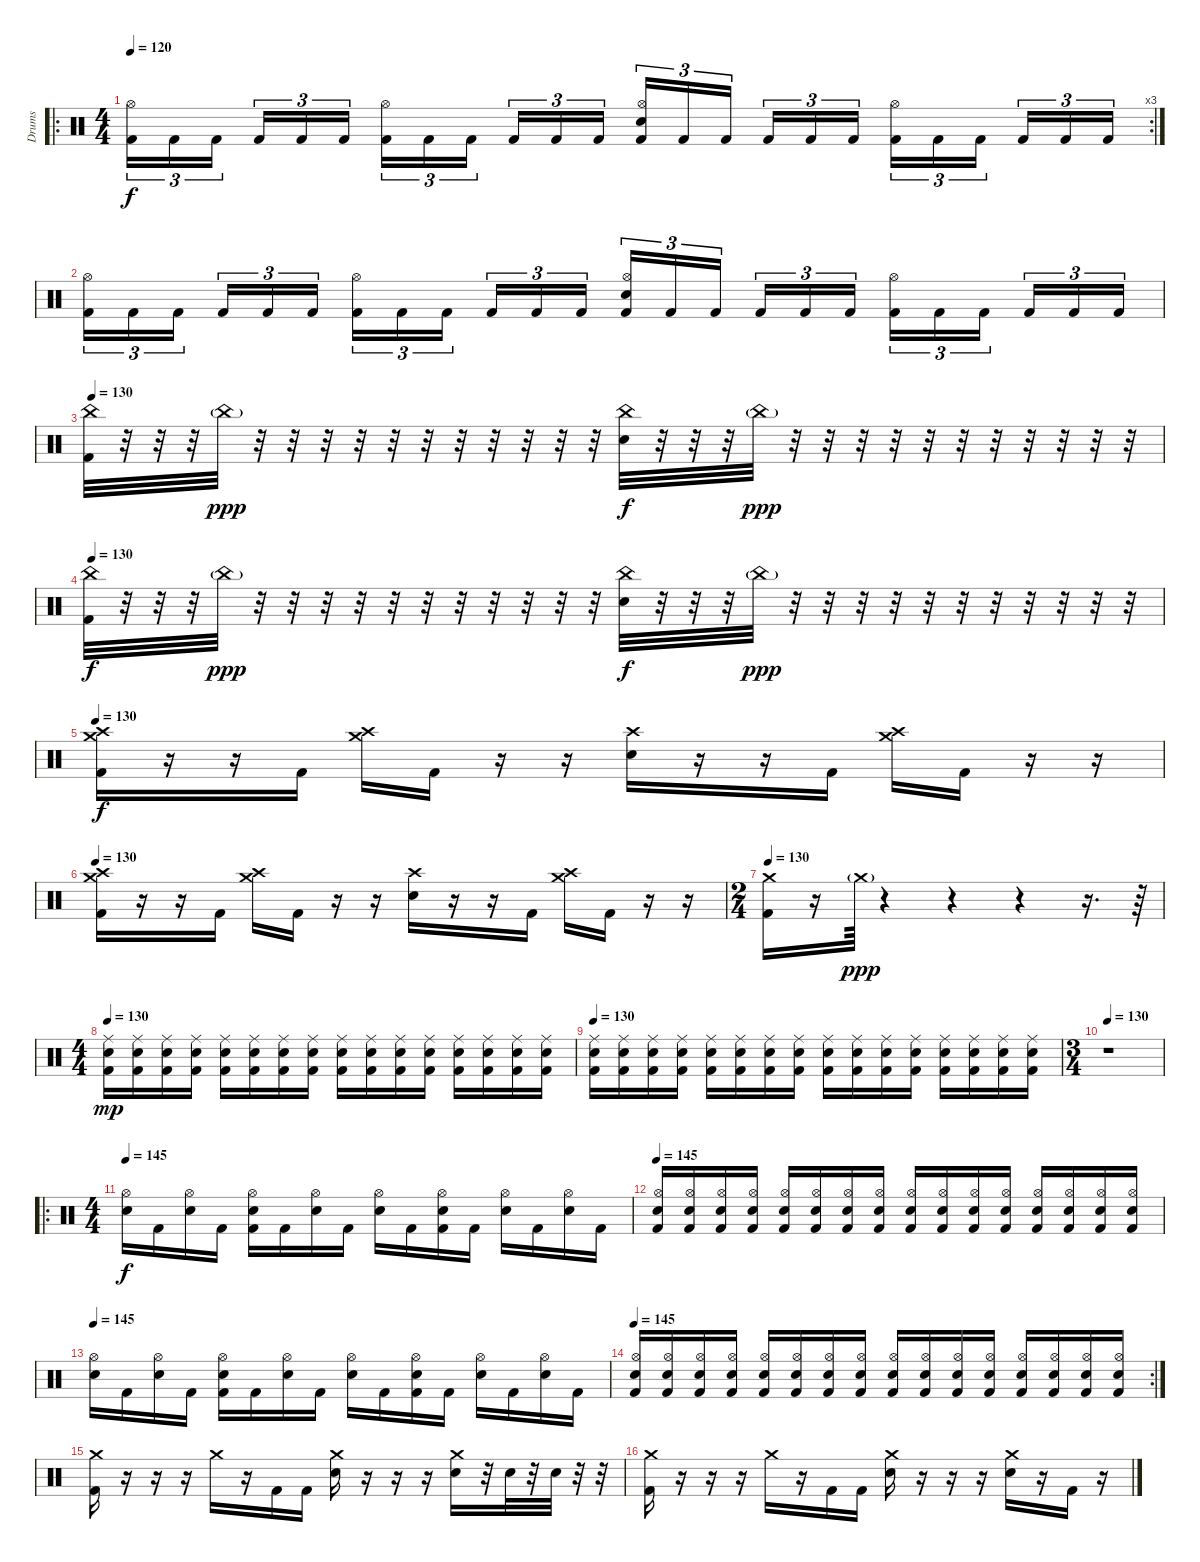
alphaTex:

\track ("Drums" "Drums") {instrument percussion}
\staff {score}
\articulation defaults
\ro
\rc 3
\ts (4 4)
\tempo 120
\clef neutral
\ks c
("Kick (hit) 2" "Hi-Hat (open)").16{tu (3 2) dy f} "Kick (hit) 2".16{tu (3 2)} "Kick (hit) 2".16{tu (3 2)} "Kick (hit) 2".16{tu (3 2)} "Kick (hit) 2".16{tu (3 2)} "Kick (hit) 2".16{tu (3 2)} ("Kick (hit) 2" "Hi-Hat (open)").16{tu (3 2)} "Kick (hit) 2".16{tu (3 2)} "Kick (hit) 2".16{tu (3 2)} "Kick (hit) 2".16{tu (3 2)} "Kick (hit) 2".16{tu (3 2)} "Kick (hit) 2".16{tu (3 2)} ("Kick (hit) 2" "Electric Snare (hit)" "Hi-Hat (open)").16{tu (3 2)} "Kick (hit) 2".16{tu (3 2)} "Kick (hit) 2".16{tu (3 2)} "Kick (hit) 2".16{tu (3 2)} "Kick (hit) 2".16{tu (3 2)} "Kick (hit) 2".16{tu (3 2)} ("Kick (hit) 2" "Hi-Hat (open)").16{tu (3 2)} "Kick (hit) 2".16{tu (3 2)} "Kick (hit) 2".16{tu (3 2)} "Kick (hit) 2".16{tu (3 2)} "Kick (hit) 2".16{tu (3 2)} "Kick (hit) 2".16{tu (3 2)} |
("Kick (hit) 2" "Hi-Hat (open)").16{tu (3 2)} "Kick (hit) 2".16{tu (3 2)} "Kick (hit) 2".16{tu (3 2)} "Kick (hit) 2".16{tu (3 2)} "Kick (hit) 2".16{tu (3 2)} "Kick (hit) 2".16{tu (3 2)} ("Kick (hit) 2" "Hi-Hat (open)").16{tu (3 2)} "Kick (hit) 2".16{tu (3 2)} "Kick (hit) 2".16{tu (3 2)} "Kick (hit) 2".16{tu (3 2)} "Kick (hit) 2".16{tu (3 2)} "Kick (hit) 2".16{tu (3 2)} ("Kick (hit) 2" "Electric Snare (hit)" "Hi-Hat (open)").16{tu (3 2)} "Kick (hit) 2".16{tu (3 2)} "Kick (hit) 2".16{tu (3 2)} "Kick (hit) 2".16{tu (3 2)} "Kick (hit) 2".16{tu (3 2)} "Kick (hit) 2".16{tu (3 2)} ("Kick (hit) 2" "Hi-Hat (open)").16{tu (3 2)} "Kick (hit) 2".16{tu (3 2)} "Kick (hit) 2".16{tu (3 2)} "Kick (hit) 2".16{tu (3 2)} "Kick (hit) 2".16{tu (3 2)} "Kick (hit) 2".16{tu (3 2)} |
\tempo 130
("Kick (hit) 2" "China (hit)").32 r.32 r.32 r.32 "China (hit)"{g}.32{dy ppp} r.32 r.32 r.32 r.32 r.32 r.32 r.32 r.32 r.32 r.32 r.32 ("Electric Snare (hit)" "China (hit)").32{dy f} r.32 r.32 r.32 "China (hit)"{g}.32{dy ppp} r.32 r.32 r.32 r.32 r.32 r.32 r.32 r.32 r.32 r.32 r.32 |
\tempo 130
("Kick (hit) 2" "China (hit)").32{dy f} r.32 r.32 r.32 "China (hit)"{g}.32{dy ppp} r.32 r.32 r.32 r.32 r.32 r.32 r.32 r.32 r.32 r.32 r.32 ("Electric Snare (hit)" "China (hit)").32{dy f} r.32 r.32 r.32 "China (hit)"{g}.32{dy ppp} r.32 r.32 r.32 r.32 r.32 r.32 r.32 r.32 r.32 r.32 r.32 |
\tempo 130
("Crash high (hit)" "Kick (hit) 2" "Crash medium (hit)").16{dy f} r.16 r.16 "Kick (hit) 2".16 ("Crash medium (hit)" "Crash high (hit)").16 "Kick (hit) 2".16 r.16 r.16 ("Electric Snare (hit)" "Crash high (hit)").16 r.16 r.16 "Kick (hit) 2".16 ("Crash medium (hit)" "Crash high (hit)").16 "Kick (hit) 2".16 r.16 r.16 |
\tempo 130
("Crash high (hit)" "Kick (hit) 2" "Crash medium (hit)").16 r.16 r.16 "Kick (hit) 2".16 ("Crash medium (hit)" "Crash high (hit)").16 "Kick (hit) 2".16 r.16 r.16 ("Electric Snare (hit)" "Crash high (hit)").16 r.16 r.16 "Kick (hit) 2".16 ("Crash medium (hit)" "Crash high (hit)").16 "Kick (hit) 2".16 r.16 r.16 |
\ts (2 4)
\tempo 130
("Crash medium (hit)" "Kick (hit) 2").16 r.16 "Crash medium (hit)"{g}.64{dy ppp} r.4 r.4 r.4 r.16{d} r.64 |
\ts (4 4)
\tempo 130
("Electric Snare (hit)" "Kick (hit) 2" "Ride (middle)").16{dy mp} ("Electric Snare (hit)" "Kick (hit) 2" "Ride (middle)").16 ("Electric Snare (hit)" "Kick (hit) 2" "Ride (middle)").16 ("Electric Snare (hit)" "Kick (hit) 2" "Ride (middle)").16 ("Electric Snare (hit)" "Kick (hit) 2" "Ride (middle)").16 ("Electric Snare (hit)" "Kick (hit) 2" "Ride (middle)").16 ("Electric Snare (hit)" "Kick (hit) 2" "Ride (middle)").16 ("Electric Snare (hit)" "Kick (hit) 2" "Ride (middle)").16 ("Electric Snare (hit)" "Kick (hit) 2" "Ride (middle)").16 ("Electric Snare (hit)" "Kick (hit) 2" "Ride (middle)").16 ("Electric Snare (hit)" "Kick (hit) 2" "Ride (middle)").16 ("Electric Snare (hit)" "Kick (hit) 2" "Ride (middle)").16 ("Electric Snare (hit)" "Kick (hit) 2" "Ride (middle)").16 ("Electric Snare (hit)" "Kick (hit) 2" "Ride (middle)").16 ("Electric Snare (hit)" "Kick (hit) 2" "Ride (middle)").16 ("Electric Snare (hit)" "Kick (hit) 2" "Ride (middle)").16 |
\tempo 130
("Electric Snare (hit)" "Kick (hit) 2" "Ride (middle)").16 ("Electric Snare (hit)" "Kick (hit) 2" "Ride (middle)").16 ("Electric Snare (hit)" "Kick (hit) 2" "Ride (middle)").16 ("Electric Snare (hit)" "Kick (hit) 2" "Ride (middle)").16 ("Electric Snare (hit)" "Kick (hit) 2" "Ride (middle)").16 ("Electric Snare (hit)" "Kick (hit) 2" "Ride (middle)").16 ("Electric Snare (hit)" "Kick (hit) 2" "Ride (middle)").16 ("Electric Snare (hit)" "Kick (hit) 2" "Ride (middle)").16 ("Electric Snare (hit)" "Kick (hit) 2" "Ride (middle)").16 ("Electric Snare (hit)" "Kick (hit) 2" "Ride (middle)").16 ("Electric Snare (hit)" "Kick (hit) 2" "Ride (middle)").16 ("Electric Snare (hit)" "Kick (hit) 2" "Ride (middle)").16 ("Electric Snare (hit)" "Kick (hit) 2" "Ride (middle)").16 ("Electric Snare (hit)" "Kick (hit) 2" "Ride (middle)").16 ("Electric Snare (hit)" "Kick (hit) 2" "Ride (middle)").16 ("Electric Snare (hit)" "Kick (hit) 2" "Ride (middle)").16 |
\ts (3 4)
\tempo 130
r.1 |
\ro
\ts (4 4)
\tempo 145
("Electric Snare (hit)" "Hi-Hat (open)").16{dy f} "Kick (hit) 2".16 ("Electric Snare (hit)" "Hi-Hat (open)").16 "Kick (hit) 2".16 ("Kick (hit) 2" "Electric Snare (hit)" "Hi-Hat (open)").16 "Kick (hit) 2".16 ("Electric Snare (hit)" "Hi-Hat (open)").16 "Kick (hit) 2".16 ("Electric Snare (hit)" "Hi-Hat (open)").16 "Kick (hit) 2".16 ("Kick (hit) 2" "Electric Snare (hit)" "Hi-Hat (open)").16 "Kick (hit) 2".16 ("Electric Snare (hit)" "Hi-Hat (open)").16 "Kick (hit) 2".16 ("Electric Snare (hit)" "Hi-Hat (open)").16 "Kick (hit) 2".16 |
\tempo 145
("Electric Snare (hit)" "Kick (hit) 2" "Hi-Hat (open)").16 ("Electric Snare (hit)" "Kick (hit) 2" "Hi-Hat (open)").16 ("Electric Snare (hit)" "Kick (hit) 2" "Hi-Hat (open)").16 ("Electric Snare (hit)" "Kick (hit) 2" "Hi-Hat (open)").16 ("Electric Snare (hit)" "Kick (hit) 2" "Hi-Hat (open)").16 ("Electric Snare (hit)" "Kick (hit) 2" "Hi-Hat (open)").16 ("Electric Snare (hit)" "Kick (hit) 2" "Hi-Hat (open)").16 ("Electric Snare (hit)" "Kick (hit) 2" "Hi-Hat (open)").16 ("Electric Snare (hit)" "Kick (hit) 2" "Hi-Hat (open)").16 ("Electric Snare (hit)" "Kick (hit) 2" "Hi-Hat (open)").16 ("Electric Snare (hit)" "Kick (hit) 2" "Hi-Hat (open)").16 ("Electric Snare (hit)" "Kick (hit) 2" "Hi-Hat (open)").16 ("Electric Snare (hit)" "Kick (hit) 2" "Hi-Hat (open)").16 ("Electric Snare (hit)" "Kick (hit) 2" "Hi-Hat (open)").16 ("Electric Snare (hit)" "Kick (hit) 2" "Hi-Hat (open)").16 ("Electric Snare (hit)" "Kick (hit) 2" "Hi-Hat (open)").16 |
\tempo 145
("Electric Snare (hit)" "Hi-Hat (open)").16 "Kick (hit) 2".16 ("Electric Snare (hit)" "Hi-Hat (open)").16 "Kick (hit) 2".16 ("Kick (hit) 2" "Electric Snare (hit)" "Hi-Hat (open)").16 "Kick (hit) 2".16 ("Electric Snare (hit)" "Hi-Hat (open)").16 "Kick (hit) 2".16 ("Electric Snare (hit)" "Hi-Hat (open)").16 "Kick (hit) 2".16 ("Kick (hit) 2" "Electric Snare (hit)" "Hi-Hat (open)").16 "Kick (hit) 2".16 ("Electric Snare (hit)" "Hi-Hat (open)").16 "Kick (hit) 2".16 ("Electric Snare (hit)" "Hi-Hat (open)").16 "Kick (hit) 2".16 |
\rc 2
\tempo 145
("Electric Snare (hit)" "Kick (hit) 2" "Hi-Hat (open)").16 ("Electric Snare (hit)" "Kick (hit) 2" "Hi-Hat (open)").16 ("Electric Snare (hit)" "Kick (hit) 2" "Hi-Hat (open)").16 ("Electric Snare (hit)" "Kick (hit) 2" "Hi-Hat (open)").16 ("Electric Snare (hit)" "Kick (hit) 2" "Hi-Hat (open)").16 ("Electric Snare (hit)" "Kick (hit) 2" "Hi-Hat (open)").16 ("Electric Snare (hit)" "Kick (hit) 2" "Hi-Hat (open)").16 ("Electric Snare (hit)" "Kick (hit) 2" "Hi-Hat (open)").16 ("Electric Snare (hit)" "Kick (hit) 2" "Hi-Hat (open)").16 ("Electric Snare (hit)" "Kick (hit) 2" "Hi-Hat (open)").16 ("Electric Snare (hit)" "Kick (hit) 2" "Hi-Hat (open)").16 ("Electric Snare (hit)" "Kick (hit) 2" "Hi-Hat (open)").16 ("Electric Snare (hit)" "Kick (hit) 2" "Hi-Hat (open)").16 ("Electric Snare (hit)" "Kick (hit) 2" "Hi-Hat (open)").16 ("Electric Snare (hit)" "Kick (hit) 2" "Hi-Hat (open)").16 ("Electric Snare (hit)" "Kick (hit) 2" "Hi-Hat (open)").16 |
("Kick (hit) 2" "Crash medium (hit)").16 r.16 r.16 r.16 "Crash medium (hit)".16 r.16 "Kick (hit) 2".16 "Kick (hit) 2".16 ("Crash medium (hit)" "Electric Snare (hit)").16 r.16 r.16 r.16 ("Electric Snare (hit)" "Crash medium (hit)").16 r.32 "Electric Snare (hit)".32 r.32 "Electric Snare (hit)".32 r.32 r.32 |
("Kick (hit) 2" "Crash medium (hit)").16 r.16 r.16 r.16 "Crash medium (hit)".16 r.16 "Kick (hit) 2".16 "Kick (hit) 2".16 ("Electric Snare (hit)" "Crash medium (hit)").16 r.16 r.16 r.16 ("Crash medium (hit)" "Electric Snare (hit)").16 r.16 "Kick (hit) 2".16 r.16
